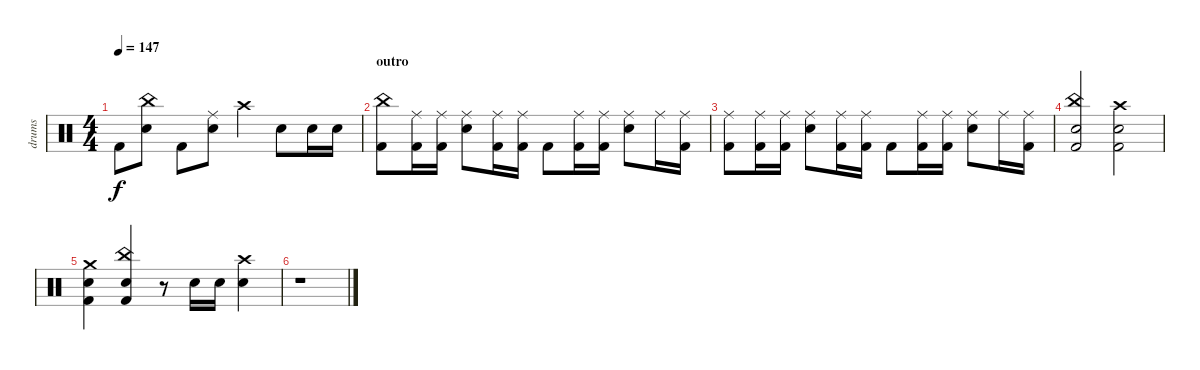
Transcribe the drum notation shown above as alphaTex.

\track ("drums" "drums") {instrument percussion}
\staff {score}
\articulation defaults
\ts (4 4)
\tempo 147
\clef neutral
\ks c "Kick (hit) 2".8{dy f}
("China (hit)" "Snare (hit) 2").8 "Kick (hit) 2".8 ("Ride (middle)" "Snare (hit) 2").8 "Crash high (hit)".4 "Snare (hit) 2".8 "Snare (hit) 2".16 "Snare (hit) 2".16 |
\section ("" "outro")
("China (hit)" "Kick (hit) 2").8 ("Ride (middle)" "Kick (hit) 2").16 ("Ride (middle)" "Kick (hit) 2").16 ("Ride (middle)" "Snare (hit) 2").8 ("Ride (middle)" "Kick (hit) 2").16 ("Ride (middle)" "Kick (hit) 2").16 "Kick (hit) 2".8 ("Ride (middle)" "Kick (hit) 2").16 ("Ride (middle)" "Kick (hit) 2").16 ("Ride (middle)" "Snare (hit) 2").8 "Ride (middle)".16 ("Ride (middle)" "Kick (hit) 2").16 |
("Ride (middle)" "Kick (hit) 2").8 ("Ride (middle)" "Kick (hit) 2").16 ("Ride (middle)" "Kick (hit) 2").16 ("Ride (middle)" "Snare (hit) 2").8 ("Ride (middle)" "Kick (hit) 2").16 ("Ride (middle)" "Kick (hit) 2").16 "Kick (hit) 2".8 ("Ride (middle)" "Kick (hit) 2").16 ("Ride (middle)" "Kick (hit) 2").16 ("Ride (middle)" "Snare (hit) 2").8 "Ride (middle)".16 ("Ride (middle)" "Kick (hit) 2").16 |
("China (hit)" "Snare (hit) 2" "Kick (hit) 2").2 ("Crash high (hit)" "Snare (hit) 2" "Kick (hit) 2").2 |
("Crash medium (hit)" "Snare (hit) 2" "Kick (hit) 2").4 ("China (hit)" "Snare (hit) 2" "Kick (hit) 2").4 r.8 "Snare (hit) 2".16 "Snare (hit) 2".16 ("Crash high (hit)" "Snare (hit) 2").4 |
r.1
